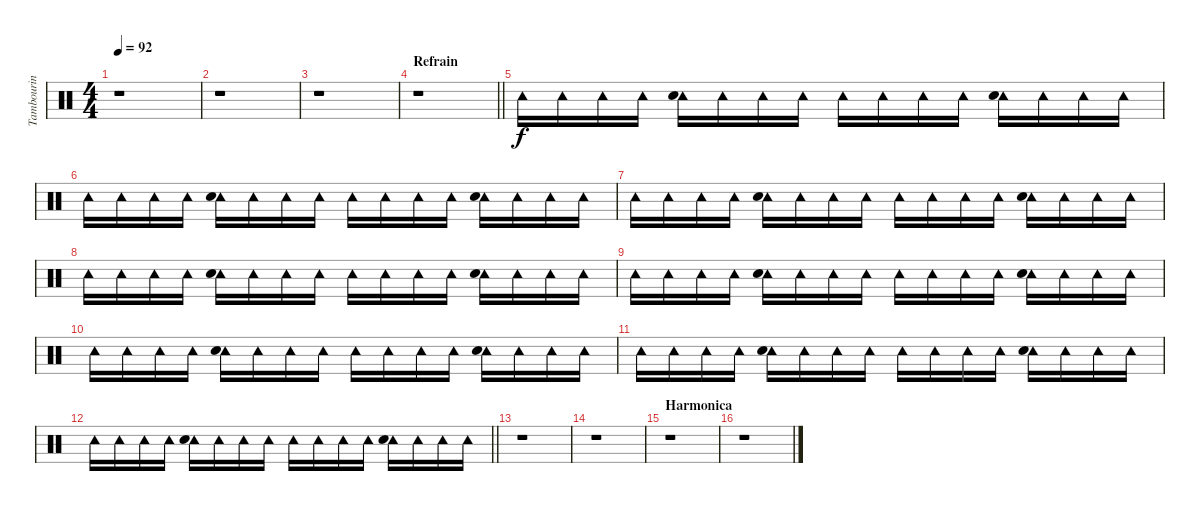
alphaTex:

\track ("Tambourin" "Tambourin") {instrument percussion}
\staff {score}
\articulation defaults
\ts (4 4)
\tempo 92
\clef neutral
\ks c
r.1{dy f} |
r.1 |
r.1 |
\section ("" "Refrain")
\barLineRight lightlight
r.1 |
"Tambourine (hit)".16 "Tambourine (hit)".16 "Tambourine (hit)".16 "Tambourine (hit)".16 ("Tambourine (hit)" "Hand Clap (hit)").16 "Tambourine (hit)".16 "Tambourine (hit)".16 "Tambourine (hit)".16 "Tambourine (hit)".16 "Tambourine (hit)".16 "Tambourine (hit)".16 "Tambourine (hit)".16 ("Tambourine (hit)" "Hand Clap (hit)").16 "Tambourine (hit)".16 "Tambourine (hit)".16 "Tambourine (hit)".16 |
"Tambourine (hit)".16 "Tambourine (hit)".16 "Tambourine (hit)".16 "Tambourine (hit)".16 ("Tambourine (hit)" "Hand Clap (hit)").16 "Tambourine (hit)".16 "Tambourine (hit)".16 "Tambourine (hit)".16 "Tambourine (hit)".16 "Tambourine (hit)".16 "Tambourine (hit)".16 "Tambourine (hit)".16 ("Tambourine (hit)" "Hand Clap (hit)").16 "Tambourine (hit)".16 "Tambourine (hit)".16 "Tambourine (hit)".16 |
"Tambourine (hit)".16 "Tambourine (hit)".16 "Tambourine (hit)".16 "Tambourine (hit)".16 ("Tambourine (hit)" "Hand Clap (hit)").16 "Tambourine (hit)".16 "Tambourine (hit)".16 "Tambourine (hit)".16 "Tambourine (hit)".16 "Tambourine (hit)".16 "Tambourine (hit)".16 "Tambourine (hit)".16 ("Tambourine (hit)" "Hand Clap (hit)").16 "Tambourine (hit)".16 "Tambourine (hit)".16 "Tambourine (hit)".16 |
"Tambourine (hit)".16 "Tambourine (hit)".16 "Tambourine (hit)".16 "Tambourine (hit)".16 ("Tambourine (hit)" "Hand Clap (hit)").16 "Tambourine (hit)".16 "Tambourine (hit)".16 "Tambourine (hit)".16 "Tambourine (hit)".16 "Tambourine (hit)".16 "Tambourine (hit)".16 "Tambourine (hit)".16 ("Tambourine (hit)" "Hand Clap (hit)").16 "Tambourine (hit)".16 "Tambourine (hit)".16 "Tambourine (hit)".16 |
"Tambourine (hit)".16 "Tambourine (hit)".16 "Tambourine (hit)".16 "Tambourine (hit)".16 ("Tambourine (hit)" "Hand Clap (hit)").16 "Tambourine (hit)".16 "Tambourine (hit)".16 "Tambourine (hit)".16 "Tambourine (hit)".16 "Tambourine (hit)".16 "Tambourine (hit)".16 "Tambourine (hit)".16 ("Tambourine (hit)" "Hand Clap (hit)").16 "Tambourine (hit)".16 "Tambourine (hit)".16 "Tambourine (hit)".16 |
"Tambourine (hit)".16 "Tambourine (hit)".16 "Tambourine (hit)".16 "Tambourine (hit)".16 ("Tambourine (hit)" "Hand Clap (hit)").16 "Tambourine (hit)".16 "Tambourine (hit)".16 "Tambourine (hit)".16 "Tambourine (hit)".16 "Tambourine (hit)".16 "Tambourine (hit)".16 "Tambourine (hit)".16 ("Tambourine (hit)" "Hand Clap (hit)").16 "Tambourine (hit)".16 "Tambourine (hit)".16 "Tambourine (hit)".16 |
"Tambourine (hit)".16 "Tambourine (hit)".16 "Tambourine (hit)".16 "Tambourine (hit)".16 ("Tambourine (hit)" "Hand Clap (hit)").16 "Tambourine (hit)".16 "Tambourine (hit)".16 "Tambourine (hit)".16 "Tambourine (hit)".16 "Tambourine (hit)".16 "Tambourine (hit)".16 "Tambourine (hit)".16 ("Tambourine (hit)" "Hand Clap (hit)").16 "Tambourine (hit)".16 "Tambourine (hit)".16 "Tambourine (hit)".16 |
\barLineRight lightlight "Tambourine (hit)".16 "Tambourine (hit)".16 "Tambourine (hit)".16 "Tambourine (hit)".16
("Tambourine (hit)" "Hand Clap (hit)").16 "Tambourine (hit)".16 "Tambourine (hit)".16 "Tambourine (hit)".16 "Tambourine (hit)".16 "Tambourine (hit)".16 "Tambourine (hit)".16 "Tambourine (hit)".16 ("Tambourine (hit)" "Hand Clap (hit)").16 "Tambourine (hit)".16 "Tambourine (hit)".16 "Tambourine (hit)".16 |
r.1 |
r.1 |
\section ("" "Harmonica")
r.1 |
r.1
